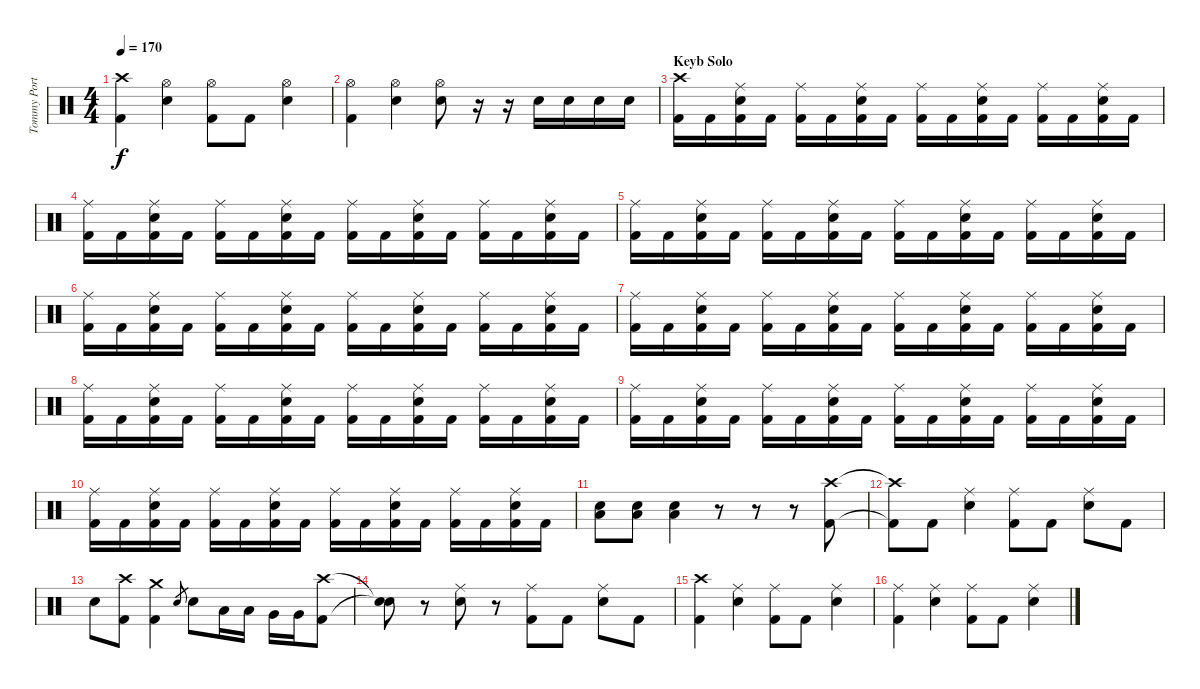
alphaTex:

\track ("Tommy Portino" "Tommy Port") {instrument percussion}
\staff {score}
\articulation defaults
\ts (4 4)
\tempo 170
\clef neutral
\ks c
("Crash high (hit)" "Kick (hit) 2").4{dy f} ("Hi-Hat (open)" "Electric Snare (hit)").4 ("Hi-Hat (open)" "Kick (hit) 2").8 "Kick (hit) 2".8 ("Hi-Hat (open)" "Electric Snare (hit)").4 |
("Hi-Hat (open)" "Kick (hit) 2").4 ("Hi-Hat (open)" "Electric Snare (hit)").4 ("Hi-Hat (open)" "Electric Snare (hit)").8 r.16 r.16 "Electric Snare (hit)".16 "Electric Snare (hit)".16 "Electric Snare (hit)".16 "Electric Snare (hit)".16 |
\section ("" "Keyb Solo")
("Crash high (hit)" "Kick (hit) 2").16 "Kick (hit) 2".16 ("Ride (middle)" "Electric Snare (hit)" "Kick (hit) 2").16 "Kick (hit) 2".16 ("Ride (middle)" "Kick (hit) 2").16 "Kick (hit) 2".16 ("Ride (middle)" "Electric Snare (hit)" "Kick (hit) 2").16 "Kick (hit) 2".16 ("Ride (middle)" "Kick (hit) 2").16 "Kick (hit) 2".16 ("Ride (middle)" "Electric Snare (hit)" "Kick (hit) 2").16 "Kick (hit) 2".16 ("Ride (middle)" "Kick (hit) 2").16 "Kick (hit) 2".16 ("Ride (middle)" "Electric Snare (hit)" "Kick (hit) 2").16 "Kick (hit) 2".16 |
("Ride (middle)" "Kick (hit) 2").16 "Kick (hit) 2".16 ("Ride (middle)" "Electric Snare (hit)" "Kick (hit) 2").16 "Kick (hit) 2".16 ("Ride (middle)" "Kick (hit) 2").16 "Kick (hit) 2".16 ("Ride (middle)" "Electric Snare (hit)" "Kick (hit) 2").16 "Kick (hit) 2".16 ("Ride (middle)" "Kick (hit) 2").16 "Kick (hit) 2".16 ("Ride (middle)" "Electric Snare (hit)" "Kick (hit) 2").16 "Kick (hit) 2".16 ("Ride (middle)" "Kick (hit) 2").16 "Kick (hit) 2".16 ("Ride (middle)" "Electric Snare (hit)" "Kick (hit) 2").16 "Kick (hit) 2".16 |
("Ride (middle)" "Kick (hit) 2").16 "Kick (hit) 2".16 ("Ride (middle)" "Electric Snare (hit)" "Kick (hit) 2").16 "Kick (hit) 2".16 ("Ride (middle)" "Kick (hit) 2").16 "Kick (hit) 2".16 ("Ride (middle)" "Electric Snare (hit)" "Kick (hit) 2").16 "Kick (hit) 2".16 ("Ride (middle)" "Kick (hit) 2").16 "Kick (hit) 2".16 ("Ride (middle)" "Electric Snare (hit)" "Kick (hit) 2").16 "Kick (hit) 2".16 ("Ride (middle)" "Kick (hit) 2").16 "Kick (hit) 2".16 ("Ride (middle)" "Electric Snare (hit)" "Kick (hit) 2").16 "Kick (hit) 2".16 |
("Ride (middle)" "Kick (hit) 2").16 "Kick (hit) 2".16 ("Ride (middle)" "Electric Snare (hit)" "Kick (hit) 2").16 "Kick (hit) 2".16 ("Ride (middle)" "Kick (hit) 2").16 "Kick (hit) 2".16 ("Ride (middle)" "Electric Snare (hit)" "Kick (hit) 2").16 "Kick (hit) 2".16 ("Ride (middle)" "Kick (hit) 2").16 "Kick (hit) 2".16 ("Ride (middle)" "Electric Snare (hit)" "Kick (hit) 2").16 "Kick (hit) 2".16 ("Ride (middle)" "Kick (hit) 2").16 "Kick (hit) 2".16 ("Ride (middle)" "Electric Snare (hit)" "Kick (hit) 2").16 "Kick (hit) 2".16 |
("Ride (middle)" "Kick (hit) 2").16 "Kick (hit) 2".16 ("Ride (middle)" "Electric Snare (hit)" "Kick (hit) 2").16 "Kick (hit) 2".16 ("Ride (middle)" "Kick (hit) 2").16 "Kick (hit) 2".16 ("Ride (middle)" "Electric Snare (hit)" "Kick (hit) 2").16 "Kick (hit) 2".16 ("Ride (middle)" "Kick (hit) 2").16 "Kick (hit) 2".16 ("Ride (middle)" "Electric Snare (hit)" "Kick (hit) 2").16 "Kick (hit) 2".16 ("Ride (middle)" "Kick (hit) 2").16 "Kick (hit) 2".16 ("Ride (middle)" "Electric Snare (hit)" "Kick (hit) 2").16 "Kick (hit) 2".16 |
("Ride (middle)" "Kick (hit) 2").16 "Kick (hit) 2".16 ("Ride (middle)" "Electric Snare (hit)" "Kick (hit) 2").16 "Kick (hit) 2".16 ("Ride (middle)" "Kick (hit) 2").16 "Kick (hit) 2".16 ("Ride (middle)" "Electric Snare (hit)" "Kick (hit) 2").16 "Kick (hit) 2".16 ("Ride (middle)" "Kick (hit) 2").16 "Kick (hit) 2".16 ("Ride (middle)" "Electric Snare (hit)" "Kick (hit) 2").16 "Kick (hit) 2".16 ("Ride (middle)" "Kick (hit) 2").16 "Kick (hit) 2".16 ("Ride (middle)" "Electric Snare (hit)" "Kick (hit) 2").16 "Kick (hit) 2".16 |
("Ride (middle)" "Kick (hit) 2").16 "Kick (hit) 2".16 ("Ride (middle)" "Electric Snare (hit)" "Kick (hit) 2").16 "Kick (hit) 2".16 ("Ride (middle)" "Kick (hit) 2").16 "Kick (hit) 2".16 ("Ride (middle)" "Electric Snare (hit)" "Kick (hit) 2").16 "Kick (hit) 2".16 ("Ride (middle)" "Kick (hit) 2").16 "Kick (hit) 2".16 ("Ride (middle)" "Electric Snare (hit)" "Kick (hit) 2").16 "Kick (hit) 2".16 ("Ride (middle)" "Kick (hit) 2").16 "Kick (hit) 2".16 ("Ride (middle)" "Electric Snare (hit)" "Kick (hit) 2").16 "Kick (hit) 2".16 |
("Ride (middle)" "Kick (hit) 2").16 "Kick (hit) 2".16 ("Ride (middle)" "Electric Snare (hit)" "Kick (hit) 2").16 "Kick (hit) 2".16 ("Ride (middle)" "Kick (hit) 2").16 "Kick (hit) 2".16 ("Ride (middle)" "Electric Snare (hit)" "Kick (hit) 2").16 "Kick (hit) 2".16 ("Ride (middle)" "Kick (hit) 2").16 "Kick (hit) 2".16 ("Ride (middle)" "Electric Snare (hit)" "Kick (hit) 2").16 "Kick (hit) 2".16 ("Ride (middle)" "Kick (hit) 2").16 "Kick (hit) 2".16 ("Ride (middle)" "Electric Snare (hit)" "Kick (hit) 2").16 "Kick (hit) 2".16 |
("Electric Snare (hit)" "Low Floor Tom (hit)").8 ("Electric Snare (hit)" "Low Floor Tom (hit)").8 ("Electric Snare (hit)" "Low Floor Tom (hit)").4 r.8 r.8 r.8 ("Crash high (hit)" "Kick (hit) 2").8 |
("Crash high (hit)"{t} "Kick (hit) 2"{t}).8 "Kick (hit) 2".8 ("Ride (middle)" "Electric Snare (hit)").4 ("Ride (middle)" "Kick (hit) 2").8 "Kick (hit) 2".8 ("Ride (middle)" "Electric Snare (hit)").8 "Kick (hit) 2".8 |
"Electric Snare (hit)".8 ("Crash high (hit)" "Kick (hit) 2").8 ("Crash medium (hit)" "Kick (hit) 2").4 "Electric Snare (hit)".8{gr} "Electric Snare (hit)".8 "Low Tom (hit)".16 "Low Tom (hit)".16 "Very Low Tom (hit)".16 "Very Low Tom (hit)".16 ("Crash high (hit)" "Kick (hit) 2").8 |
("Snare (hit)"{t} "Snare (hit)"{t}).8 r.8 ("Ride (middle)" "Electric Snare (hit)").8 r.8 ("Ride (middle)" "Kick (hit) 2").8 "Kick (hit) 2".8 ("Ride (middle)" "Electric Snare (hit)").8 "Kick (hit) 2".8 |
("Crash high (hit)" "Kick (hit) 2").4 ("Ride (middle)" "Electric Snare (hit)").4 ("Ride (middle)" "Kick (hit) 2").8 "Kick (hit) 2".8 ("Ride (middle)" "Electric Snare (hit)").4 |
("Ride (middle)" "Kick (hit) 2").4 ("Ride (middle)" "Electric Snare (hit)").4 ("Ride (middle)" "Kick (hit) 2").8 "Kick (hit) 2".8 ("Ride (middle)" "Electric Snare (hit)").4
